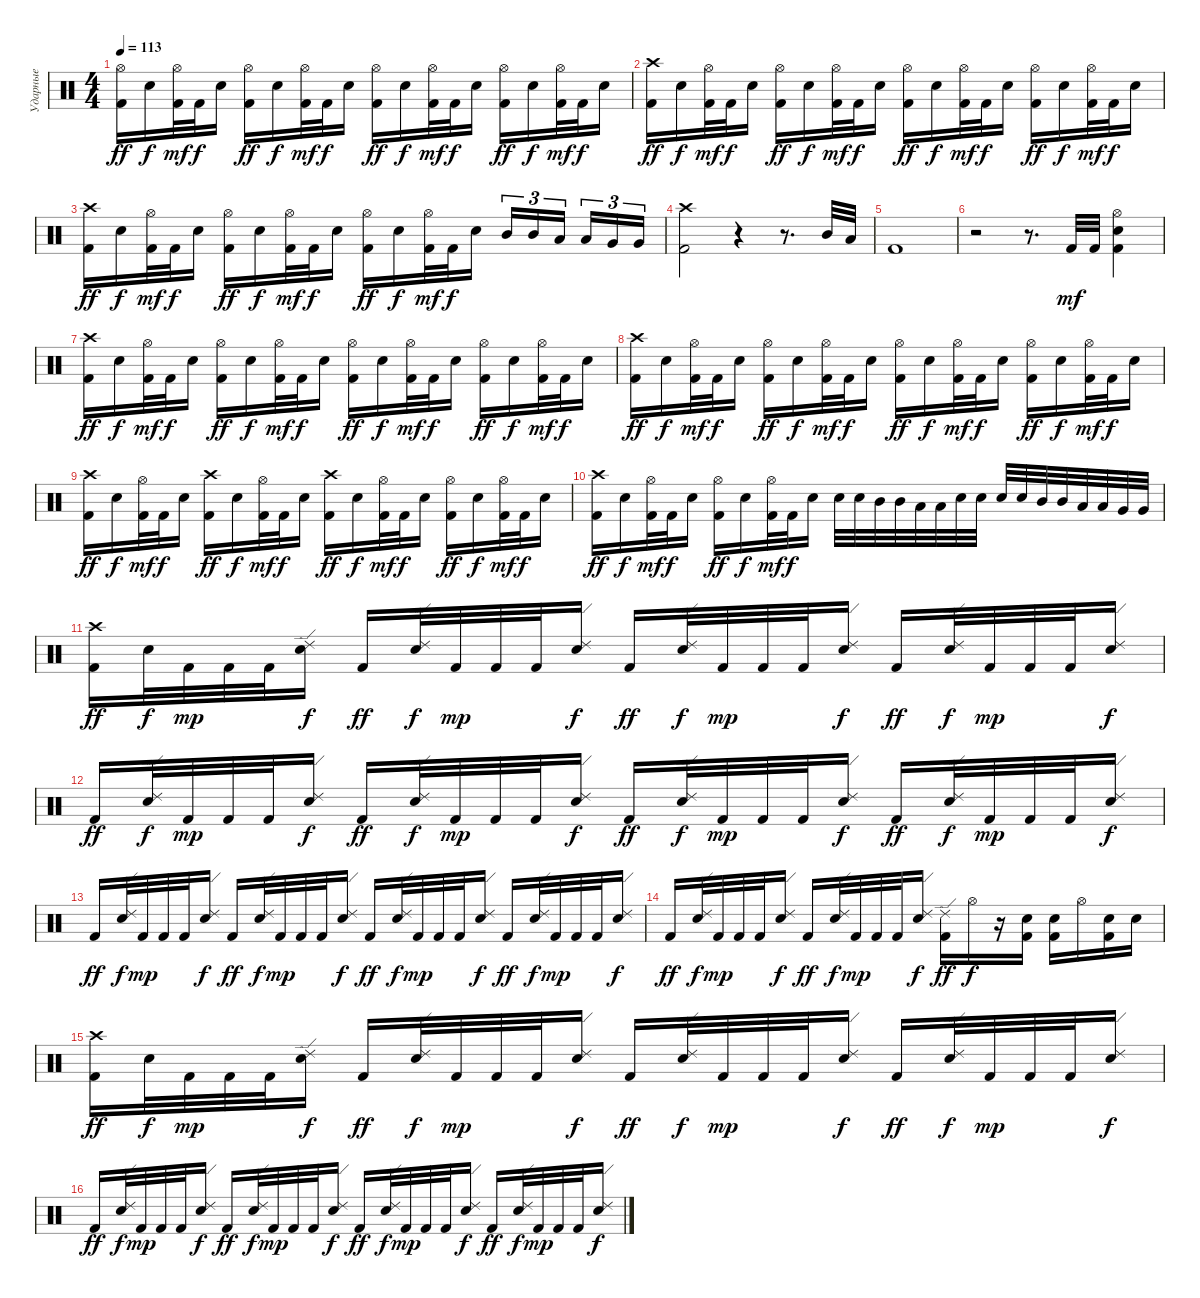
\track ("Ударные" "Ударные") {instrument percussion}
\staff {score}
\articulation defaults
\ts (4 4)
\tempo 113
\clef neutral
\ks c
("Hi-Hat (open)" "Kick (hit) 2").16{dy ff} "Electric Snare (hit)".16{dy f} ("Hi-Hat (open)" "Kick (hit) 2").32{dy mf} "Kick (hit) 2".32{dy f} "Electric Snare (hit)".16 ("Hi-Hat (open)" "Kick (hit) 2").16{dy ff} "Electric Snare (hit)".16{dy f} ("Hi-Hat (open)" "Kick (hit) 2").32{dy mf} "Kick (hit) 2".32{dy f} "Electric Snare (hit)".16 ("Hi-Hat (open)" "Kick (hit) 2").16{dy ff} "Electric Snare (hit)".16{dy f} ("Hi-Hat (open)" "Kick (hit) 2").32{dy mf} "Kick (hit) 2".32{dy f} "Electric Snare (hit)".16 ("Hi-Hat (open)" "Kick (hit) 2").16{dy ff} "Electric Snare (hit)".16{dy f} ("Hi-Hat (open)" "Kick (hit) 2").32{dy mf} "Kick (hit) 2".32{dy f} "Electric Snare (hit)".16 |
("Crash high (hit)" "Kick (hit) 2").16{dy ff} "Electric Snare (hit)".16{dy f} ("Hi-Hat (open)" "Kick (hit) 2").32{dy mf} "Kick (hit) 2".32{dy f} "Electric Snare (hit)".16 ("Hi-Hat (open)" "Kick (hit) 2").16{dy ff} "Electric Snare (hit)".16{dy f} ("Hi-Hat (open)" "Kick (hit) 2").32{dy mf} "Kick (hit) 2".32{dy f} "Electric Snare (hit)".16 ("Hi-Hat (open)" "Kick (hit) 2").16{dy ff} "Electric Snare (hit)".16{dy f} ("Hi-Hat (open)" "Kick (hit) 2").32{dy mf} "Kick (hit) 2".32{dy f} "Electric Snare (hit)".16 ("Hi-Hat (open)" "Kick (hit) 2").16{dy ff} "Electric Snare (hit)".16{dy f} ("Hi-Hat (open)" "Kick (hit) 2").32{dy mf} "Kick (hit) 2".32{dy f} "Electric Snare (hit)".16 |
("Crash high (hit)" "Kick (hit) 2").16{dy ff} "Electric Snare (hit)".16{dy f} ("Hi-Hat (open)" "Kick (hit) 2").32{dy mf} "Kick (hit) 2".32{dy f} "Electric Snare (hit)".16 ("Hi-Hat (open)" "Kick (hit) 2").16{dy ff} "Electric Snare (hit)".16{dy f} ("Hi-Hat (open)" "Kick (hit) 2").32{dy mf} "Kick (hit) 2".32{dy f} "Electric Snare (hit)".16 ("Hi-Hat (open)" "Kick (hit) 2").16{dy ff} "Electric Snare (hit)".16{dy f} ("Hi-Hat (open)" "Kick (hit) 2").32{dy mf} "Kick (hit) 2".32{dy f} "Electric Snare (hit)".16 "Mid Tom (hit)".16{tu (3 2)} "Mid Tom (hit)".16{tu (3 2)} "Low Tom (hit)".16{tu (3 2) beam splitsecondary} "Low Tom (hit)".16{tu (3 2)} "Very Low Tom (hit)".16{tu (3 2)} "Very Low Tom (hit)".16{tu (3 2)} |
("Crash high (hit)" "Kick (hit) 2").2 r.4 r.8{d} "Mid Tom (hit)".32 "Low Tom (hit)".32 |
"Kick (hit) 2".1 |
r.2 r.8{d} "Kick (hit) 2".32{dy mf} "Kick (hit) 2".32 ("Hi-Hat (open)" "Electric Snare (hit)" "Kick (hit) 2").4 |
("Crash high (hit)" "Kick (hit) 2").16{dy ff} "Electric Snare (hit)".16{dy f} ("Hi-Hat (open)" "Kick (hit) 2").32{dy mf} "Kick (hit) 2".32{dy f} "Electric Snare (hit)".16 ("Hi-Hat (open)" "Kick (hit) 2").16{dy ff} "Electric Snare (hit)".16{dy f} ("Hi-Hat (open)" "Kick (hit) 2").32{dy mf} "Kick (hit) 2".32{dy f} "Electric Snare (hit)".16 ("Hi-Hat (open)" "Kick (hit) 2").16{dy ff} "Electric Snare (hit)".16{dy f} ("Hi-Hat (open)" "Kick (hit) 2").32{dy mf} "Kick (hit) 2".32{dy f} "Electric Snare (hit)".16 ("Hi-Hat (open)" "Kick (hit) 2").16{dy ff} "Electric Snare (hit)".16{dy f} ("Hi-Hat (open)" "Kick (hit) 2").32{dy mf} "Kick (hit) 2".32{dy f} "Electric Snare (hit)".16 |
("Crash high (hit)" "Kick (hit) 2").16{dy ff} "Electric Snare (hit)".16{dy f} ("Hi-Hat (open)" "Kick (hit) 2").32{dy mf} "Kick (hit) 2".32{dy f} "Electric Snare (hit)".16 ("Hi-Hat (open)" "Kick (hit) 2").16{dy ff} "Electric Snare (hit)".16{dy f} ("Hi-Hat (open)" "Kick (hit) 2").32{dy mf} "Kick (hit) 2".32{dy f} "Electric Snare (hit)".16 ("Hi-Hat (open)" "Kick (hit) 2").16{dy ff} "Electric Snare (hit)".16{dy f} ("Hi-Hat (open)" "Kick (hit) 2").32{dy mf} "Kick (hit) 2".32{dy f} "Electric Snare (hit)".16 ("Hi-Hat (open)" "Kick (hit) 2").16{dy ff} "Electric Snare (hit)".16{dy f} ("Hi-Hat (open)" "Kick (hit) 2").32{dy mf} "Kick (hit) 2".32{dy f} "Electric Snare (hit)".16 |
("Crash high (hit)" "Kick (hit) 2").16{dy ff} "Electric Snare (hit)".16{dy f} ("Hi-Hat (open)" "Kick (hit) 2").32{dy mf} "Kick (hit) 2".32{dy f} "Electric Snare (hit)".16 ("Crash high (hit)" "Kick (hit) 2").16{dy ff} "Electric Snare (hit)".16{dy f} ("Hi-Hat (open)" "Kick (hit) 2").32{dy mf} "Kick (hit) 2".32{dy f} "Electric Snare (hit)".16 ("Crash high (hit)" "Kick (hit) 2").16{dy ff} "Electric Snare (hit)".16{dy f} ("Hi-Hat (open)" "Kick (hit) 2").32{dy mf} "Kick (hit) 2".32{dy f} "Electric Snare (hit)".16 ("Hi-Hat (open)" "Kick (hit) 2").16{dy ff} "Electric Snare (hit)".16{dy f} ("Hi-Hat (open)" "Kick (hit) 2").32{dy mf} "Kick (hit) 2".32{dy f} "Electric Snare (hit)".16 |
("Crash high (hit)" "Kick (hit) 2").16{dy ff} "Electric Snare (hit)".16{dy f} ("Hi-Hat (open)" "Kick (hit) 2").32{dy mf} "Kick (hit) 2".32{dy f} "Electric Snare (hit)".16 ("Hi-Hat (open)" "Kick (hit) 2").16{dy ff} "Electric Snare (hit)".16{dy f} ("Hi-Hat (open)" "Kick (hit) 2").32{dy mf} "Kick (hit) 2".32{dy f} "Electric Snare (hit)".16 "Electric Snare (hit)".32 "Electric Snare (hit)".32 "Mid Tom (hit)".32 "Mid Tom (hit)".32 "Low Tom (hit)".32 "Low Tom (hit)".32 "Electric Snare (hit)".32 "Electric Snare (hit)".32 "Electric Snare (hit)".32 "Electric Snare (hit)".32 "Mid Tom (hit)".32 "Mid Tom (hit)".32 "Low Tom (hit)".32 "Low Tom (hit)".32 "Very Low Tom (hit)".32 "Very Low Tom (hit)".32 |
("Crash high (hit)" "Kick (hit) 2").16{dy ff} "Electric Snare (hit)".32{dy f} "Kick (hit) 2".32{dy mp} "Kick (hit) 2".32 "Kick (hit) 2".32 ("Ride (edge) 2" "Electric Snare (hit)").16{dy f} "Kick (hit) 2".16{dy ff} ("Ride (edge) 2" "Electric Snare (hit)").32{dy f} "Kick (hit) 2".32{dy mp} "Kick (hit) 2".32 "Kick (hit) 2".32 ("Ride (edge) 2" "Electric Snare (hit)").16{dy f} "Kick (hit) 2".16{dy ff} ("Ride (edge) 2" "Electric Snare (hit)").32{dy f} "Kick (hit) 2".32{dy mp} "Kick (hit) 2".32 "Kick (hit) 2".32 ("Ride (edge) 2" "Electric Snare (hit)").16{dy f} "Kick (hit) 2".16{dy ff} ("Ride (edge) 2" "Electric Snare (hit)").32{dy f} "Kick (hit) 2".32{dy mp} "Kick (hit) 2".32 "Kick (hit) 2".32 ("Ride (edge) 2" "Electric Snare (hit)").16{dy f} |
"Kick (hit) 2".16{dy ff} ("Ride (edge) 2" "Electric Snare (hit)").32{dy f} "Kick (hit) 2".32{dy mp} "Kick (hit) 2".32 "Kick (hit) 2".32 ("Ride (edge) 2" "Electric Snare (hit)").16{dy f} "Kick (hit) 2".16{dy ff} ("Ride (edge) 2" "Electric Snare (hit)").32{dy f} "Kick (hit) 2".32{dy mp} "Kick (hit) 2".32 "Kick (hit) 2".32 ("Ride (edge) 2" "Electric Snare (hit)").16{dy f} "Kick (hit) 2".16{dy ff} ("Ride (edge) 2" "Electric Snare (hit)").32{dy f} "Kick (hit) 2".32{dy mp} "Kick (hit) 2".32 "Kick (hit) 2".32 ("Ride (edge) 2" "Electric Snare (hit)").16{dy f} "Kick (hit) 2".16{dy ff} ("Ride (edge) 2" "Electric Snare (hit)").32{dy f} "Kick (hit) 2".32{dy mp} "Kick (hit) 2".32 "Kick (hit) 2".32 ("Ride (edge) 2" "Electric Snare (hit)").16{dy f} |
"Kick (hit) 2".16{dy ff} ("Ride (edge) 2" "Electric Snare (hit)").32{dy f} "Kick (hit) 2".32{dy mp} "Kick (hit) 2".32 "Kick (hit) 2".32 ("Ride (edge) 2" "Electric Snare (hit)").16{dy f} "Kick (hit) 2".16{dy ff} ("Ride (edge) 2" "Electric Snare (hit)").32{dy f} "Kick (hit) 2".32{dy mp} "Kick (hit) 2".32 "Kick (hit) 2".32 ("Ride (edge) 2" "Electric Snare (hit)").16{dy f} "Kick (hit) 2".16{dy ff} ("Ride (edge) 2" "Electric Snare (hit)").32{dy f} "Kick (hit) 2".32{dy mp} "Kick (hit) 2".32 "Kick (hit) 2".32 ("Ride (edge) 2" "Electric Snare (hit)").16{dy f} "Kick (hit) 2".16{dy ff} ("Ride (edge) 2" "Electric Snare (hit)").32{dy f} "Kick (hit) 2".32{dy mp} "Kick (hit) 2".32 "Kick (hit) 2".32 ("Ride (edge) 2" "Electric Snare (hit)").16{dy f} |
"Kick (hit) 2".16{dy ff} ("Ride (edge) 2" "Electric Snare (hit)").32{dy f} "Kick (hit) 2".32{dy mp} "Kick (hit) 2".32 "Kick (hit) 2".32 ("Ride (edge) 2" "Electric Snare (hit)").16{dy f} "Kick (hit) 2".16{dy ff} ("Ride (edge) 2" "Electric Snare (hit)").32{dy f} "Kick (hit) 2".32{dy mp} "Kick (hit) 2".32 "Kick (hit) 2".32 ("Ride (edge) 2" "Electric Snare (hit)").16{dy f} ("Ride (edge) 2" "Kick (hit) 2").16{dy ff} "Hi-Hat (open)".16{dy f} r.16 ("Electric Snare (hit)" "Kick (hit) 2").16 ("Electric Snare (hit)" "Kick (hit) 2").16 "Hi-Hat (open)".16 ("Electric Snare (hit)" "Kick (hit) 2").16 "Electric Snare (hit)".16 |
("Crash high (hit)" "Kick (hit) 2").16{dy ff} "Electric Snare (hit)".32{dy f} "Kick (hit) 2".32{dy mp} "Kick (hit) 2".32 "Kick (hit) 2".32 ("Ride (edge) 2" "Electric Snare (hit)").16{dy f} "Kick (hit) 2".16{dy ff} ("Ride (edge) 2" "Electric Snare (hit)").32{dy f} "Kick (hit) 2".32{dy mp} "Kick (hit) 2".32 "Kick (hit) 2".32 ("Ride (edge) 2" "Electric Snare (hit)").16{dy f} "Kick (hit) 2".16{dy ff} ("Ride (edge) 2" "Electric Snare (hit)").32{dy f} "Kick (hit) 2".32{dy mp} "Kick (hit) 2".32 "Kick (hit) 2".32 ("Ride (edge) 2" "Electric Snare (hit)").16{dy f} "Kick (hit) 2".16{dy ff} ("Ride (edge) 2" "Electric Snare (hit)").32{dy f} "Kick (hit) 2".32{dy mp} "Kick (hit) 2".32 "Kick (hit) 2".32 ("Ride (edge) 2" "Electric Snare (hit)").16{dy f} |
"Kick (hit) 2".16{dy ff} ("Ride (edge) 2" "Electric Snare (hit)").32{dy f} "Kick (hit) 2".32{dy mp} "Kick (hit) 2".32 "Kick (hit) 2".32 ("Ride (edge) 2" "Electric Snare (hit)").16{dy f} "Kick (hit) 2".16{dy ff} ("Ride (edge) 2" "Electric Snare (hit)").32{dy f} "Kick (hit) 2".32{dy mp} "Kick (hit) 2".32 "Kick (hit) 2".32 ("Ride (edge) 2" "Electric Snare (hit)").16{dy f} "Kick (hit) 2".16{dy ff} ("Ride (edge) 2" "Electric Snare (hit)").32{dy f} "Kick (hit) 2".32{dy mp} "Kick (hit) 2".32 "Kick (hit) 2".32 ("Ride (edge) 2" "Electric Snare (hit)").16{dy f} "Kick (hit) 2".16{dy ff} ("Ride (edge) 2" "Electric Snare (hit)").32{dy f} "Kick (hit) 2".32{dy mp} "Kick (hit) 2".32 "Kick (hit) 2".32 ("Ride (edge) 2" "Electric Snare (hit)").16{dy f}
